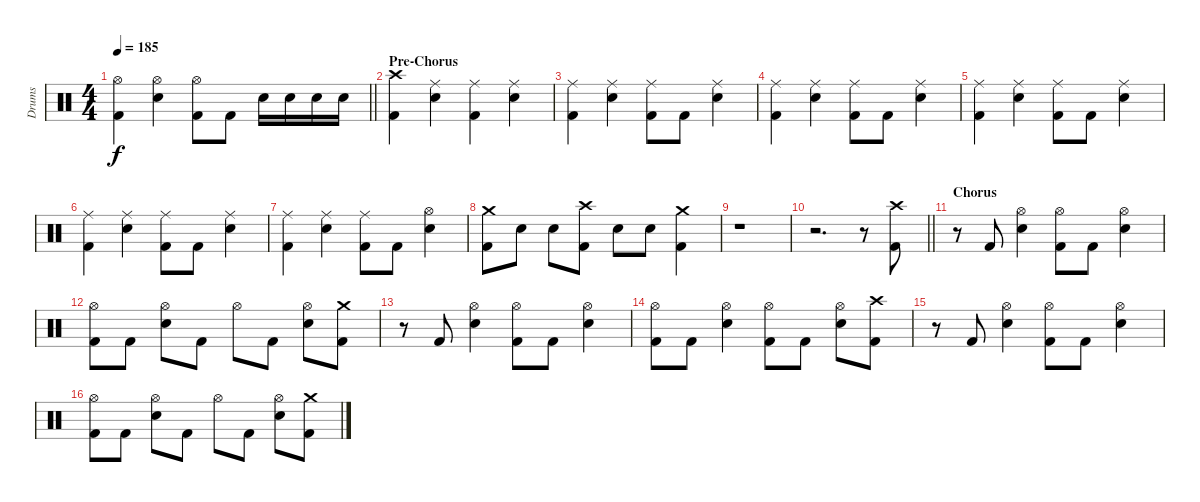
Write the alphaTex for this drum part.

\track ("Drums" "Drums") {instrument percussion}
\staff {score}
\articulation defaults
\ts (4 4)
\tempo 185
\clef neutral
\barLineRight lightlight
\ks c
("Hi-Hat (open)" "Kick (hit) 2").4{dy f} ("Hi-Hat (open)" "Snare (hit) 2").4 ("Hi-Hat (open)" "Kick (hit) 2").8 "Kick (hit) 2".8 "Snare (hit) 2".16 "Snare (hit) 2".16 "Snare (hit) 2".16 "Snare (hit) 2".16 |
\section ("" "Pre-Chorus")
("Crash high (hit)" "Kick (hit) 2").4 ("Ride (middle)" "Snare (hit) 2").4 ("Ride (middle)" "Kick (hit) 2").4 ("Ride (middle)" "Snare (hit) 2").4 |
("Ride (middle)" "Kick (hit) 2").4 ("Ride (middle)" "Snare (hit) 2").4 ("Ride (middle)" "Kick (hit) 2").8 "Kick (hit) 2".8 ("Ride (middle)" "Snare (hit) 2").4 |
("Ride (middle)" "Kick (hit) 2").4 ("Ride (middle)" "Snare (hit) 2").4 ("Ride (middle)" "Kick (hit) 2").8 "Kick (hit) 2".8 ("Ride (middle)" "Snare (hit) 2").4 |
("Ride (middle)" "Kick (hit) 2").4 ("Ride (middle)" "Snare (hit) 2").4 ("Ride (middle)" "Kick (hit) 2").8 "Kick (hit) 2".8 ("Ride (middle)" "Snare (hit) 2").4 |
("Ride (middle)" "Kick (hit) 2").4 ("Ride (middle)" "Snare (hit) 2").4 ("Ride (middle)" "Kick (hit) 2").8 "Kick (hit) 2".8 ("Ride (middle)" "Snare (hit) 2").4 |
("Ride (middle)" "Kick (hit) 2").4 ("Ride (middle)" "Snare (hit) 2").4 ("Ride (middle)" "Kick (hit) 2").8 "Kick (hit) 2".8 ("Hi-Hat (open)" "Snare (hit) 2").4 |
("Crash medium (hit)" "Kick (hit) 2").8 "Snare (hit) 2".8 "Snare (hit) 2".8 ("Crash high (hit)" "Kick (hit) 2").8 "Snare (hit) 2".8 "Snare (hit) 2".8 ("Crash medium (hit)" "Kick (hit) 2").4 |
r.1 |
\barLineRight lightlight
r.2{d} r.8 ("Crash high (hit)" "Kick (hit) 2").8 |
\section ("" "Chorus")
r.8 "Kick (hit) 2".8 ("Hi-Hat (open)" "Snare (hit) 2").4 ("Hi-Hat (open)" "Kick (hit) 2").8 "Kick (hit) 2".8 ("Hi-Hat (open)" "Snare (hit) 2").4 |
("Hi-Hat (open)" "Kick (hit) 2").8 "Kick (hit) 2".8 ("Hi-Hat (open)" "Snare (hit) 2").8 "Kick (hit) 2".8 "Hi-Hat (open)".8 "Kick (hit) 2".8 ("Hi-Hat (open)" "Snare (hit) 2").8 ("Crash medium (hit)" "Kick (hit) 2").8 |
r.8 "Kick (hit) 2".8 ("Hi-Hat (open)" "Snare (hit) 2").4 ("Hi-Hat (open)" "Kick (hit) 2").8 "Kick (hit) 2".8 ("Hi-Hat (open)" "Snare (hit) 2").4 |
("Hi-Hat (open)" "Kick (hit) 2").8 "Kick (hit) 2".8 ("Hi-Hat (open)" "Snare (hit) 2").4 ("Hi-Hat (open)" "Kick (hit) 2").8 "Kick (hit) 2".8 ("Hi-Hat (open)" "Snare (hit) 2").8 ("Crash high (hit)" "Kick (hit) 2").8 |
r.8 "Kick (hit) 2".8 ("Hi-Hat (open)" "Snare (hit) 2").4 ("Hi-Hat (open)" "Kick (hit) 2").8 "Kick (hit) 2".8 ("Hi-Hat (open)" "Snare (hit) 2").4 |
("Hi-Hat (open)" "Kick (hit) 2").8 "Kick (hit) 2".8 ("Hi-Hat (open)" "Snare (hit) 2").8 "Kick (hit) 2".8 "Hi-Hat (open)".8 "Kick (hit) 2".8 ("Hi-Hat (open)" "Snare (hit) 2").8 ("Crash medium (hit)" "Kick (hit) 2").8
